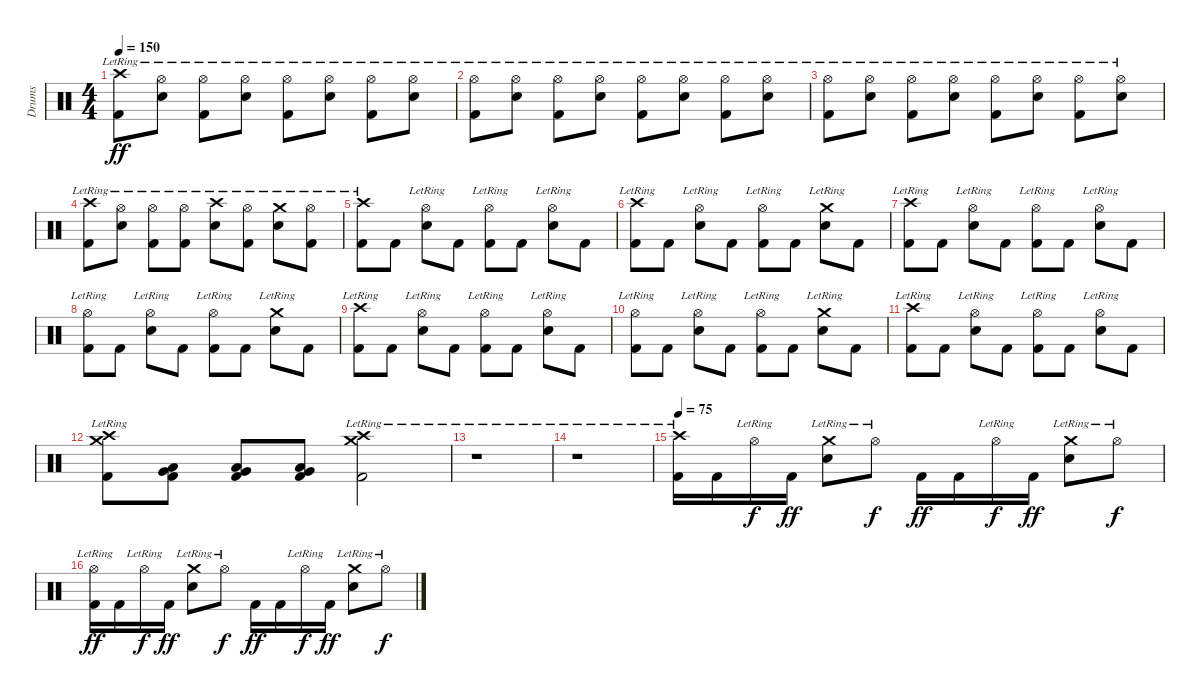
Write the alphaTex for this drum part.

\track ("Drums" "Drums") {instrument percussion}
\staff {score}
\articulation defaults
\ts (4 4)
\tempo 150
\clef neutral
\ks c
("Crash high (hit)"{lr} "Kick (hit) 2").8{dy ff} ("Hi-Hat (open)"{lr} "Snare (hit) 2").8 ("Hi-Hat (open)"{lr} "Kick (hit) 2").8 ("Hi-Hat (open)"{lr} "Snare (hit) 2").8 ("Hi-Hat (open)"{lr} "Kick (hit) 2").8 ("Hi-Hat (open)"{lr} "Snare (hit) 2").8 ("Hi-Hat (open)"{lr} "Kick (hit) 2").8 ("Hi-Hat (open)"{lr} "Snare (hit) 2").8 |
("Hi-Hat (open)"{lr} "Kick (hit) 2").8 ("Hi-Hat (open)"{lr} "Snare (hit) 2").8 ("Hi-Hat (open)"{lr} "Kick (hit) 2").8 ("Hi-Hat (open)"{lr} "Snare (hit) 2").8 ("Hi-Hat (open)"{lr} "Kick (hit) 2").8 ("Hi-Hat (open)"{lr} "Snare (hit) 2").8 ("Hi-Hat (open)"{lr} "Kick (hit) 2").8 ("Hi-Hat (open)"{lr} "Snare (hit) 2").8 |
("Hi-Hat (open)"{lr} "Kick (hit) 2").8 ("Hi-Hat (open)"{lr} "Snare (hit) 2").8 ("Hi-Hat (open)"{lr} "Kick (hit) 2").8 ("Hi-Hat (open)"{lr} "Snare (hit) 2").8 ("Hi-Hat (open)"{lr} "Kick (hit) 2").8 ("Hi-Hat (open)"{lr} "Snare (hit) 2").8 ("Hi-Hat (open)"{lr} "Kick (hit) 2").8 ("Hi-Hat (open)"{lr} "Snare (hit) 2").8 |
("Crash high (hit)"{lr} "Kick (hit) 2").8 ("Hi-Hat (open)"{lr} "Snare (hit) 2").8 ("Hi-Hat (open)"{lr} "Kick (hit) 2").8 ("Hi-Hat (open)"{lr} "Kick (hit) 2").8 ("Crash high (hit)"{lr} "Snare (hit) 2").8 ("Hi-Hat (open)"{lr} "Kick (hit) 2").8 ("Crash medium (hit)"{lr} "Snare (hit) 2").8 ("Hi-Hat (open)"{lr} "Kick (hit) 2").8 |
("Crash high (hit)"{lr} "Kick (hit) 2").8 "Kick (hit) 2".8 ("Hi-Hat (open)"{lr} "Snare (hit) 2").8 "Kick (hit) 2".8 ("Hi-Hat (open)"{lr} "Kick (hit) 2").8 "Kick (hit) 2".8 ("Hi-Hat (open)"{lr} "Snare (hit) 2").8 "Kick (hit) 2".8 |
("Crash high (hit)"{lr} "Kick (hit) 2").8 "Kick (hit) 2".8 ("Hi-Hat (open)"{lr} "Snare (hit) 2").8 "Kick (hit) 2".8 ("Hi-Hat (open)"{lr} "Kick (hit) 2").8 "Kick (hit) 2".8 ("Crash medium (hit)"{lr} "Snare (hit) 2").8 "Kick (hit) 2".8 |
("Crash high (hit)"{lr} "Kick (hit) 2").8 "Kick (hit) 2".8 ("Hi-Hat (open)"{lr} "Snare (hit) 2").8 "Kick (hit) 2".8 ("Hi-Hat (open)"{lr} "Kick (hit) 2").8 "Kick (hit) 2".8 ("Hi-Hat (open)"{lr} "Snare (hit) 2").8 "Kick (hit) 2".8 |
("Hi-Hat (open)"{lr} "Kick (hit) 2").8 "Kick (hit) 2".8 ("Hi-Hat (open)"{lr} "Snare (hit) 2").8 "Kick (hit) 2".8 ("Hi-Hat (open)"{lr} "Kick (hit) 2").8 "Kick (hit) 2".8 ("Crash medium (hit)"{lr} "Snare (hit) 2").8 "Kick (hit) 2".8 |
("Crash high (hit)"{lr} "Kick (hit) 2").8 "Kick (hit) 2".8 ("Hi-Hat (open)"{lr} "Snare (hit) 2").8 "Kick (hit) 2".8 ("Hi-Hat (open)"{lr} "Kick (hit) 2").8 "Kick (hit) 2".8 ("Hi-Hat (open)"{lr} "Snare (hit) 2").8 "Kick (hit) 2".8 |
("Hi-Hat (open)"{lr} "Kick (hit) 2").8 "Kick (hit) 2".8 ("Hi-Hat (open)"{lr} "Snare (hit) 2").8 "Kick (hit) 2".8 ("Hi-Hat (open)"{lr} "Kick (hit) 2").8 "Kick (hit) 2".8 ("Crash medium (hit)"{lr} "Snare (hit) 2").8 "Kick (hit) 2".8 |
("Crash high (hit)"{lr} "Kick (hit) 2").8 "Kick (hit) 2".8 ("Hi-Hat (open)"{lr} "Snare (hit) 2").8 "Kick (hit) 2".8 ("Hi-Hat (open)"{lr} "Kick (hit) 2").8 "Kick (hit) 2".8 ("Hi-Hat (open)"{lr} "Snare (hit) 2").8 "Kick (hit) 2".8 |
("Crash medium (hit)"{lr} "Crash high (hit)"{lr} "Kick (hit) 2").8 ("Low Floor Tom (hit)" "Very Low Tom (hit)" "Kick (hit) 2").8 ("Low Floor Tom (hit)" "Very Low Tom (hit)" "Kick (hit) 2").8 ("Low Floor Tom (hit)" "Very Low Tom (hit)" "Kick (hit) 2").8 ("Crash medium (hit)"{lr} "Crash high (hit)"{lr} "Kick (hit) 2").2 |
r.1 |
r.1 |
\tempo 75
("Crash high (hit)"{lr} "Kick (hit) 2").16 "Kick (hit) 2".16 "Hi-Hat (open)"{lr}.16{dy f} "Kick (hit) 2".16{dy ff} ("Crash medium (hit)"{lr} "Snare (hit) 2").8 "Hi-Hat (open)"{lr}.8{dy f} "Kick (hit) 2".16{dy ff} "Kick (hit) 2".16 "Hi-Hat (open)"{lr}.16{dy f} "Kick (hit) 2".16{dy ff} ("Crash medium (hit)"{lr} "Snare (hit) 2").8 "Hi-Hat (open)"{lr}.8{dy f} |
("Hi-Hat (open)"{lr} "Kick (hit) 2").16{dy ff} "Kick (hit) 2".16 "Hi-Hat (open)"{lr}.16{dy f} "Kick (hit) 2".16{dy ff} ("Crash medium (hit)"{lr} "Snare (hit) 2").8 "Hi-Hat (open)"{lr}.8{dy f} "Kick (hit) 2".16{dy ff} "Kick (hit) 2".16 "Hi-Hat (open)"{lr}.16{dy f} "Kick (hit) 2".16{dy ff} ("Crash medium (hit)"{lr} "Snare (hit) 2").8 "Hi-Hat (open)"{lr}.8{dy f}
